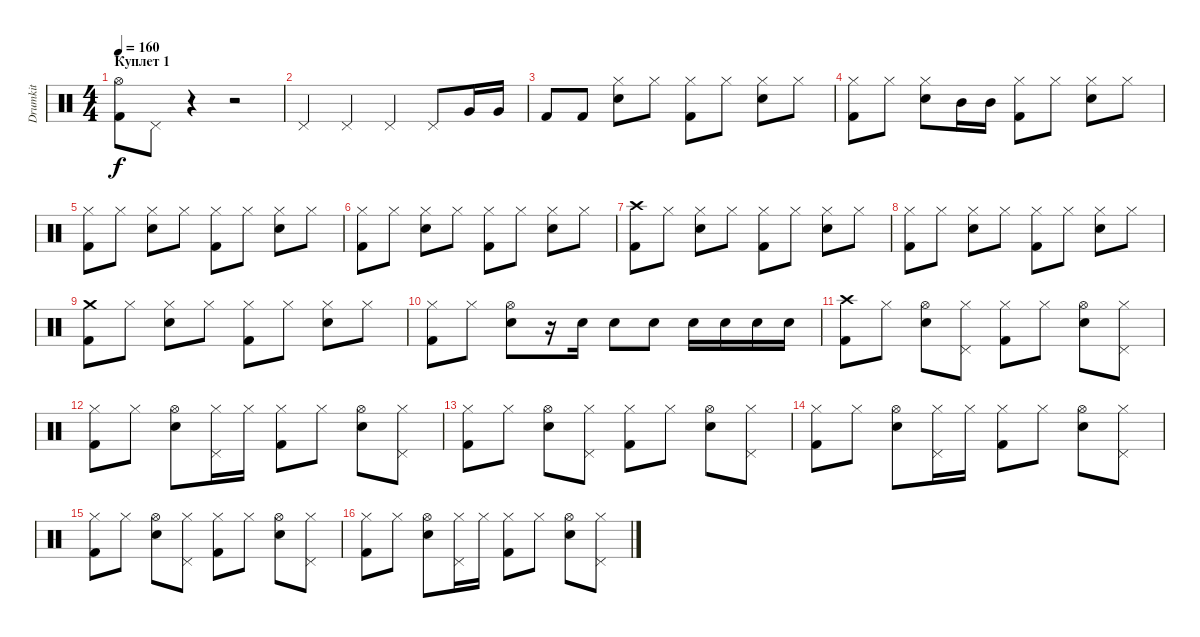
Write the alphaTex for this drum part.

\track ("Drumkit" "Drumkit") {instrument percussion}
\staff {score}
\articulation defaults
\ts (4 4)
\section ("" "Куплет 1")
\tempo 160
\clef neutral
\ks c
("Hi-Hat (open)" "Kick (hit) 2").8{dy f} "Pedal Hi-Hat (hit)".8 r.4 r.2 |
"Pedal Hi-Hat (hit)".4 "Pedal Hi-Hat (hit)".4 "Pedal Hi-Hat (hit)".4 "Pedal Hi-Hat (hit)".8 "Very Low Tom (hit)".16 "Very Low Tom (hit)".16 |
"Kick (hit) 2".8 "Kick (hit) 2".8 ("Hi-Hat (closed)" "Electric Snare (hit)").8 "Hi-Hat (closed)".8 ("Hi-Hat (closed)" "Kick (hit) 2").8 "Hi-Hat (closed)".8 ("Hi-Hat (closed)" "Electric Snare (hit)").8 "Hi-Hat (closed)".8 |
("Hi-Hat (closed)" "Kick (hit) 2").8 "Hi-Hat (closed)".8 ("Hi-Hat (closed)" "Electric Snare (hit)").8 "Mid Tom (hit)".16 "Mid Tom (hit)".16 ("Hi-Hat (closed)" "Kick (hit) 2").8 "Hi-Hat (closed)".8 ("Hi-Hat (closed)" "Electric Snare (hit)").8 "Hi-Hat (closed)".8 |
("Hi-Hat (closed)" "Kick (hit) 2").8 "Hi-Hat (closed)".8 ("Hi-Hat (closed)" "Electric Snare (hit)").8 "Hi-Hat (closed)".8 ("Hi-Hat (closed)" "Kick (hit) 2").8 "Hi-Hat (closed)".8 ("Hi-Hat (closed)" "Electric Snare (hit)").8 "Hi-Hat (closed)".8 |
("Hi-Hat (closed)" "Kick (hit) 2").8 "Hi-Hat (closed)".8 ("Hi-Hat (closed)" "Electric Snare (hit)").8 "Hi-Hat (closed)".8 ("Hi-Hat (closed)" "Kick (hit) 2").8 "Hi-Hat (closed)".8 ("Hi-Hat (closed)" "Electric Snare (hit)").8 "Hi-Hat (closed)".8 |
("Crash high (hit)" "Kick (hit) 2").8 "Hi-Hat (closed)".8 ("Hi-Hat (closed)" "Electric Snare (hit)").8 "Hi-Hat (closed)".8 ("Hi-Hat (closed)" "Kick (hit) 2").8 "Hi-Hat (closed)".8 ("Hi-Hat (closed)" "Electric Snare (hit)").8 "Hi-Hat (closed)".8 |
("Hi-Hat (closed)" "Kick (hit) 2").8 "Hi-Hat (closed)".8 ("Hi-Hat (closed)" "Electric Snare (hit)").8 "Hi-Hat (closed)".8 ("Hi-Hat (closed)" "Kick (hit) 2").8 "Hi-Hat (closed)".8 ("Hi-Hat (closed)" "Electric Snare (hit)").8 "Hi-Hat (closed)".8 |
("Crash medium (hit)" "Kick (hit) 2").8 "Hi-Hat (closed)".8 ("Hi-Hat (closed)" "Electric Snare (hit)").8 "Hi-Hat (closed)".8 ("Hi-Hat (closed)" "Kick (hit) 2").8 "Hi-Hat (closed)".8 ("Hi-Hat (closed)" "Electric Snare (hit)").8 "Hi-Hat (closed)".8 |
("Hi-Hat (closed)" "Kick (hit) 2").8 "Hi-Hat (closed)".8 ("Hi-Hat (open)" "Electric Snare (hit)").8 r.16 "Electric Snare (hit)".16 "Electric Snare (hit)".8 "Electric Snare (hit)".8 "Electric Snare (hit)".16 "Electric Snare (hit)".16 "Electric Snare (hit)".16 "Electric Snare (hit)".16 |
("Crash high (hit)" "Kick (hit) 2").8 "Hi-Hat (closed)".8 ("Hi-Hat (open)" "Electric Snare (hit)").8 ("Hi-Hat (closed)" "Pedal Hi-Hat (hit)").8 ("Hi-Hat (closed)" "Kick (hit) 2").8 "Hi-Hat (closed)".8 ("Hi-Hat (open)" "Electric Snare (hit)").8 ("Hi-Hat (closed)" "Pedal Hi-Hat (hit)").8 |
("Hi-Hat (closed)" "Kick (hit) 2").8 "Hi-Hat (closed)".8 ("Hi-Hat (open)" "Electric Snare (hit)").8 ("Hi-Hat (closed)" "Pedal Hi-Hat (hit)").16 "Hi-Hat (closed)".16 ("Hi-Hat (closed)" "Kick (hit) 2").8 "Hi-Hat (closed)".8 ("Hi-Hat (open)" "Electric Snare (hit)").8 ("Hi-Hat (closed)" "Pedal Hi-Hat (hit)").8 |
("Hi-Hat (closed)" "Kick (hit) 2").8 "Hi-Hat (closed)".8 ("Hi-Hat (open)" "Electric Snare (hit)").8 ("Hi-Hat (closed)" "Pedal Hi-Hat (hit)").8 ("Hi-Hat (closed)" "Kick (hit) 2").8 "Hi-Hat (closed)".8 ("Hi-Hat (open)" "Electric Snare (hit)").8 ("Hi-Hat (closed)" "Pedal Hi-Hat (hit)").8 |
("Hi-Hat (closed)" "Kick (hit) 2").8 "Hi-Hat (closed)".8 ("Hi-Hat (open)" "Electric Snare (hit)").8 ("Hi-Hat (closed)" "Pedal Hi-Hat (hit)").16 "Hi-Hat (closed)".16 ("Hi-Hat (closed)" "Kick (hit) 2").8 "Hi-Hat (closed)".8 ("Hi-Hat (open)" "Electric Snare (hit)").8 ("Hi-Hat (closed)" "Pedal Hi-Hat (hit)").8 |
("Hi-Hat (closed)" "Kick (hit) 2").8 "Hi-Hat (closed)".8 ("Hi-Hat (open)" "Electric Snare (hit)").8 ("Hi-Hat (closed)" "Pedal Hi-Hat (hit)").8 ("Hi-Hat (closed)" "Kick (hit) 2").8 "Hi-Hat (closed)".8 ("Hi-Hat (open)" "Electric Snare (hit)").8 ("Hi-Hat (closed)" "Pedal Hi-Hat (hit)").8 |
("Hi-Hat (closed)" "Kick (hit) 2").8 "Hi-Hat (closed)".8 ("Hi-Hat (open)" "Electric Snare (hit)").8 ("Hi-Hat (closed)" "Pedal Hi-Hat (hit)").16 "Hi-Hat (closed)".16 ("Hi-Hat (closed)" "Kick (hit) 2").8 "Hi-Hat (closed)".8 ("Hi-Hat (open)" "Electric Snare (hit)").8 ("Hi-Hat (closed)" "Pedal Hi-Hat (hit)").8
